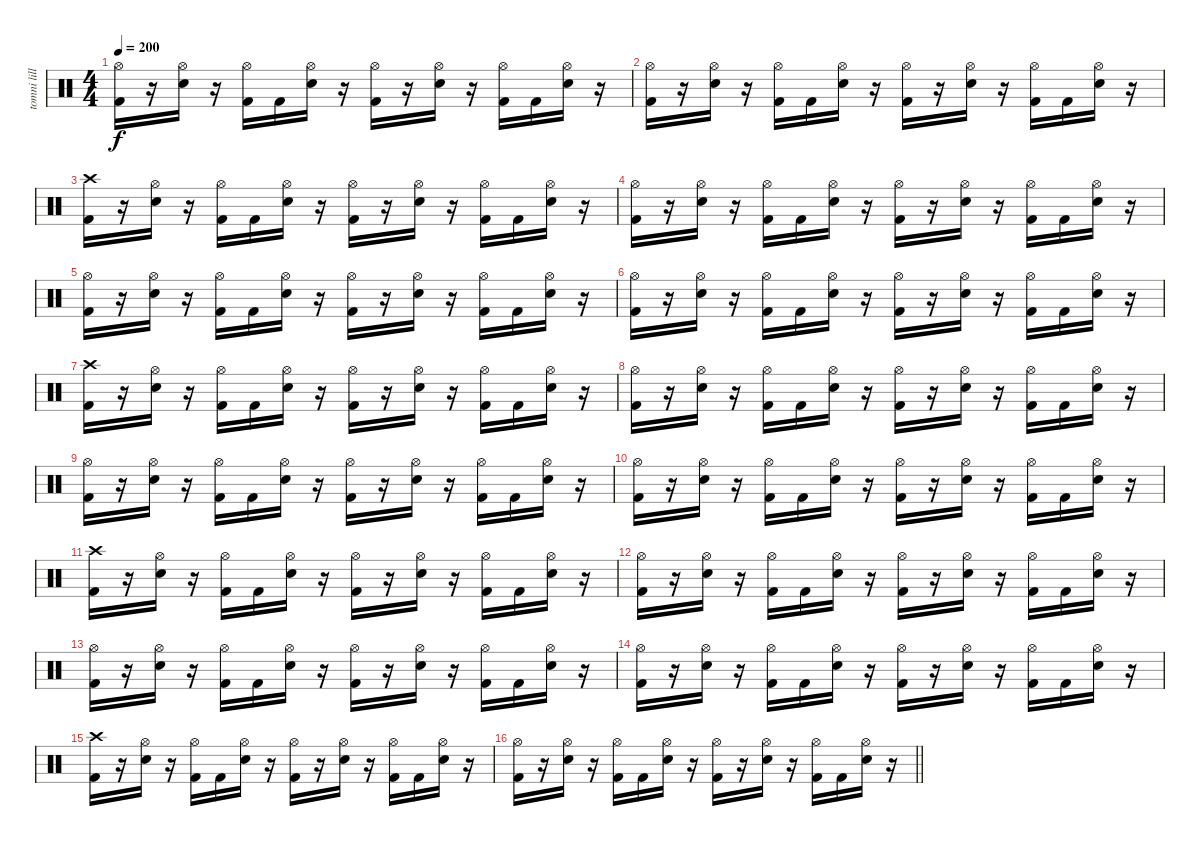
\track ("tomni lillmann" "tomni lill") {instrument percussion}
\staff {score}
\articulation defaults
\ts (4 4)
\tempo 200
\clef neutral
\ks c
("Hi-Hat (open)" "Kick (hit) 2").16{dy f} r.16 ("Hi-Hat (open)" "Snare (hit) 2").16 r.16 ("Hi-Hat (open)" "Kick (hit) 2").16 "Kick (hit) 2".16 ("Hi-Hat (open)" "Snare (hit) 2").16 r.16 ("Hi-Hat (open)" "Kick (hit) 2").16 r.16 ("Hi-Hat (open)" "Snare (hit) 2").16 r.16 ("Hi-Hat (open)" "Kick (hit) 2").16 "Kick (hit) 2".16 ("Hi-Hat (open)" "Snare (hit) 2").16 r.16 |
("Hi-Hat (open)" "Kick (hit) 2").16 r.16 ("Hi-Hat (open)" "Snare (hit) 2").16 r.16 ("Hi-Hat (open)" "Kick (hit) 2").16 "Kick (hit) 2".16 ("Hi-Hat (open)" "Snare (hit) 2").16 r.16 ("Hi-Hat (open)" "Kick (hit) 2").16 r.16 ("Hi-Hat (open)" "Snare (hit) 2").16 r.16 ("Hi-Hat (open)" "Kick (hit) 2").16 "Kick (hit) 2".16 ("Hi-Hat (open)" "Snare (hit) 2").16 r.16 |
("Crash high (hit)" "Kick (hit) 2").16 r.16 ("Hi-Hat (open)" "Snare (hit) 2").16 r.16 ("Hi-Hat (open)" "Kick (hit) 2").16 "Kick (hit) 2".16 ("Hi-Hat (open)" "Snare (hit) 2").16 r.16 ("Hi-Hat (open)" "Kick (hit) 2").16 r.16 ("Hi-Hat (open)" "Snare (hit) 2").16 r.16 ("Hi-Hat (open)" "Kick (hit) 2").16 "Kick (hit) 2".16 ("Hi-Hat (open)" "Snare (hit) 2").16 r.16 |
("Hi-Hat (open)" "Kick (hit) 2").16 r.16 ("Hi-Hat (open)" "Snare (hit) 2").16 r.16 ("Hi-Hat (open)" "Kick (hit) 2").16 "Kick (hit) 2".16 ("Hi-Hat (open)" "Snare (hit) 2").16 r.16 ("Hi-Hat (open)" "Kick (hit) 2").16 r.16 ("Hi-Hat (open)" "Snare (hit) 2").16 r.16 ("Hi-Hat (open)" "Kick (hit) 2").16 "Kick (hit) 2".16 ("Hi-Hat (open)" "Snare (hit) 2").16 r.16 |
("Hi-Hat (open)" "Kick (hit) 2").16 r.16 ("Hi-Hat (open)" "Snare (hit) 2").16 r.16 ("Hi-Hat (open)" "Kick (hit) 2").16 "Kick (hit) 2".16 ("Hi-Hat (open)" "Snare (hit) 2").16 r.16 ("Hi-Hat (open)" "Kick (hit) 2").16 r.16 ("Hi-Hat (open)" "Snare (hit) 2").16 r.16 ("Hi-Hat (open)" "Kick (hit) 2").16 "Kick (hit) 2".16 ("Hi-Hat (open)" "Snare (hit) 2").16 r.16 |
("Hi-Hat (open)" "Kick (hit) 2").16 r.16 ("Hi-Hat (open)" "Snare (hit) 2").16 r.16 ("Hi-Hat (open)" "Kick (hit) 2").16 "Kick (hit) 2".16 ("Hi-Hat (open)" "Snare (hit) 2").16 r.16 ("Hi-Hat (open)" "Kick (hit) 2").16 r.16 ("Hi-Hat (open)" "Snare (hit) 2").16 r.16 ("Hi-Hat (open)" "Kick (hit) 2").16 "Kick (hit) 2".16 ("Hi-Hat (open)" "Snare (hit) 2").16 r.16 |
("Crash high (hit)" "Kick (hit) 2").16 r.16 ("Hi-Hat (open)" "Snare (hit) 2").16 r.16 ("Hi-Hat (open)" "Kick (hit) 2").16 "Kick (hit) 2".16 ("Hi-Hat (open)" "Snare (hit) 2").16 r.16 ("Hi-Hat (open)" "Kick (hit) 2").16 r.16 ("Hi-Hat (open)" "Snare (hit) 2").16 r.16 ("Hi-Hat (open)" "Kick (hit) 2").16 "Kick (hit) 2".16 ("Hi-Hat (open)" "Snare (hit) 2").16 r.16 |
("Hi-Hat (open)" "Kick (hit) 2").16 r.16 ("Hi-Hat (open)" "Snare (hit) 2").16 r.16 ("Hi-Hat (open)" "Kick (hit) 2").16 "Kick (hit) 2".16 ("Hi-Hat (open)" "Snare (hit) 2").16 r.16 ("Hi-Hat (open)" "Kick (hit) 2").16 r.16 ("Hi-Hat (open)" "Snare (hit) 2").16 r.16 ("Hi-Hat (open)" "Kick (hit) 2").16 "Kick (hit) 2".16 ("Hi-Hat (open)" "Snare (hit) 2").16 r.16 |
("Hi-Hat (open)" "Kick (hit) 2").16 r.16 ("Hi-Hat (open)" "Snare (hit) 2").16 r.16 ("Hi-Hat (open)" "Kick (hit) 2").16 "Kick (hit) 2".16 ("Hi-Hat (open)" "Snare (hit) 2").16 r.16 ("Hi-Hat (open)" "Kick (hit) 2").16 r.16 ("Hi-Hat (open)" "Snare (hit) 2").16 r.16 ("Hi-Hat (open)" "Kick (hit) 2").16 "Kick (hit) 2".16 ("Hi-Hat (open)" "Snare (hit) 2").16 r.16 |
("Hi-Hat (open)" "Kick (hit) 2").16 r.16 ("Hi-Hat (open)" "Snare (hit) 2").16 r.16 ("Hi-Hat (open)" "Kick (hit) 2").16 "Kick (hit) 2".16 ("Hi-Hat (open)" "Snare (hit) 2").16 r.16 ("Hi-Hat (open)" "Kick (hit) 2").16 r.16 ("Hi-Hat (open)" "Snare (hit) 2").16 r.16 ("Hi-Hat (open)" "Kick (hit) 2").16 "Kick (hit) 2".16 ("Hi-Hat (open)" "Snare (hit) 2").16 r.16 |
("Crash high (hit)" "Kick (hit) 2").16 r.16 ("Hi-Hat (open)" "Snare (hit) 2").16 r.16 ("Hi-Hat (open)" "Kick (hit) 2").16 "Kick (hit) 2".16 ("Hi-Hat (open)" "Snare (hit) 2").16 r.16 ("Hi-Hat (open)" "Kick (hit) 2").16 r.16 ("Hi-Hat (open)" "Snare (hit) 2").16 r.16 ("Hi-Hat (open)" "Kick (hit) 2").16 "Kick (hit) 2".16 ("Hi-Hat (open)" "Snare (hit) 2").16 r.16 |
("Hi-Hat (open)" "Kick (hit) 2").16 r.16 ("Hi-Hat (open)" "Snare (hit) 2").16 r.16 ("Hi-Hat (open)" "Kick (hit) 2").16 "Kick (hit) 2".16 ("Hi-Hat (open)" "Snare (hit) 2").16 r.16 ("Hi-Hat (open)" "Kick (hit) 2").16 r.16 ("Hi-Hat (open)" "Snare (hit) 2").16 r.16 ("Hi-Hat (open)" "Kick (hit) 2").16 "Kick (hit) 2".16 ("Hi-Hat (open)" "Snare (hit) 2").16 r.16 |
("Hi-Hat (open)" "Kick (hit) 2").16 r.16 ("Hi-Hat (open)" "Snare (hit) 2").16 r.16 ("Hi-Hat (open)" "Kick (hit) 2").16 "Kick (hit) 2".16 ("Hi-Hat (open)" "Snare (hit) 2").16 r.16 ("Hi-Hat (open)" "Kick (hit) 2").16 r.16 ("Hi-Hat (open)" "Snare (hit) 2").16 r.16 ("Hi-Hat (open)" "Kick (hit) 2").16 "Kick (hit) 2".16 ("Hi-Hat (open)" "Snare (hit) 2").16 r.16 |
("Hi-Hat (open)" "Kick (hit) 2").16 r.16 ("Hi-Hat (open)" "Snare (hit) 2").16 r.16 ("Hi-Hat (open)" "Kick (hit) 2").16 "Kick (hit) 2".16 ("Hi-Hat (open)" "Snare (hit) 2").16 r.16 ("Hi-Hat (open)" "Kick (hit) 2").16 r.16 ("Hi-Hat (open)" "Snare (hit) 2").16 r.16 ("Hi-Hat (open)" "Kick (hit) 2").16 "Kick (hit) 2".16 ("Hi-Hat (open)" "Snare (hit) 2").16 r.16 |
("Crash high (hit)" "Kick (hit) 2").16 r.16 ("Hi-Hat (open)" "Snare (hit) 2").16 r.16 ("Hi-Hat (open)" "Kick (hit) 2").16 "Kick (hit) 2".16 ("Hi-Hat (open)" "Snare (hit) 2").16 r.16 ("Hi-Hat (open)" "Kick (hit) 2").16 r.16 ("Hi-Hat (open)" "Snare (hit) 2").16 r.16 ("Hi-Hat (open)" "Kick (hit) 2").16 "Kick (hit) 2".16 ("Hi-Hat (open)" "Snare (hit) 2").16 r.16 |
\barLineRight lightlight
("Hi-Hat (open)" "Kick (hit) 2").16 r.16 ("Hi-Hat (open)" "Snare (hit) 2").16 r.16 ("Hi-Hat (open)" "Kick (hit) 2").16 "Kick (hit) 2".16 ("Hi-Hat (open)" "Snare (hit) 2").16 r.16 ("Hi-Hat (open)" "Kick (hit) 2").16 r.16 ("Hi-Hat (open)" "Snare (hit) 2").16 r.16 ("Hi-Hat (open)" "Kick (hit) 2").16 "Kick (hit) 2".16 ("Hi-Hat (open)" "Snare (hit) 2").16 r.16
